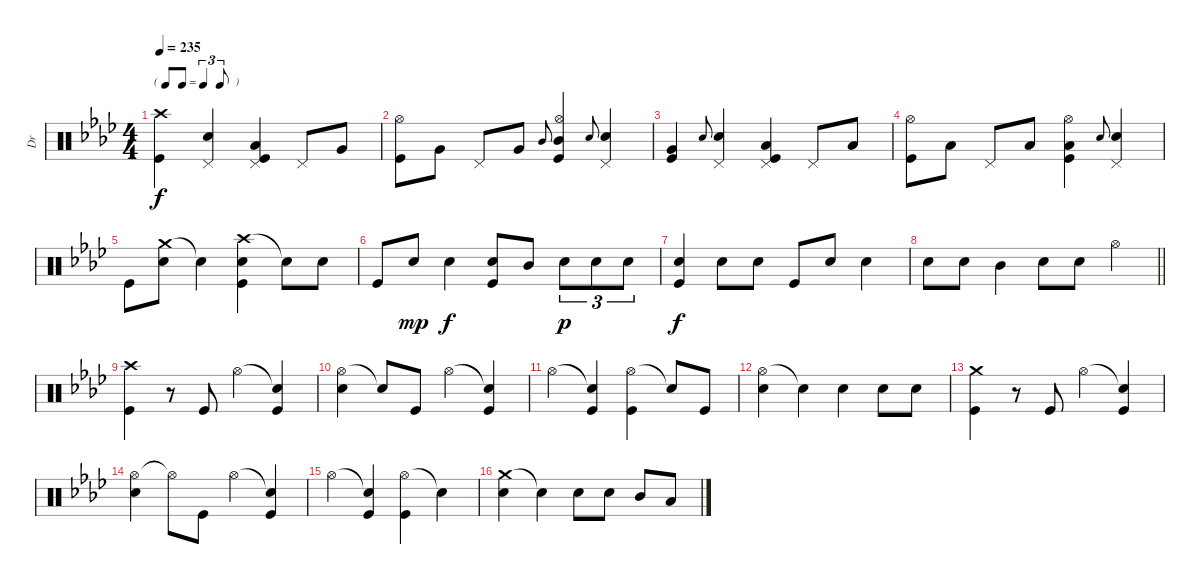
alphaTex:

\track ("Dr" "Dr") {instrument percussion}
\staff {score}
\articulation defaults
\ts (4 4)
\tf triplet8th
\tempo 235
\clef neutral
\ks ab
("Crash high (hit)" "Kick (hit)").4{dy f} ("Electric Snare (hit)" "Pedal Hi-Hat (hit)").4 ("Low Floor Tom (hit)" "Kick (hit)" "Pedal Hi-Hat (hit)").4 "Pedal Hi-Hat (hit)".8 "Very Low Tom (hit)".8 |
("Kick (hit)" "Hi-Hat (open)").8 "Very Low Tom (hit)".8 "Pedal Hi-Hat (hit)".8 "Very Low Tom (hit)".8 "Mid Tom (hit)".8{gr onbeat} ("Mid Tom (hit)" "Kick (hit)" "Hi-Hat (open)").4 "Electric Snare (hit)".8{gr onbeat} ("Electric Snare (hit)" "Pedal Hi-Hat (hit)").4 |
("Very Low Tom (hit)" "Kick (hit)").4 "Electric Snare (hit)".8{gr onbeat} ("Electric Snare (hit)" "Pedal Hi-Hat (hit)").4 ("Low Floor Tom (hit)" "Kick (hit)" "Pedal Hi-Hat (hit)").4 "Pedal Hi-Hat (hit)".8 "Low Floor Tom (hit)".8 |
("Kick (hit)" "Hi-Hat (open)").8 "Low Floor Tom (hit)".8 "Pedal Hi-Hat (hit)".8 "Low Floor Tom (hit)".8 ("Low Floor Tom (hit)" "Kick (hit)" "Hi-Hat (open)").4 "Electric Snare (hit)".8{gr onbeat} ("Electric Snare (hit)" "Pedal Hi-Hat (hit)").4 |
"Kick (hit)".8 ("Crash medium (hit)" "Electric Snare (hit)").8 "Snare (hit)"{t}.4 ("Crash high (hit)" "Electric Snare (hit)" "Kick (hit)").4 "Snare (hit)"{t}.8 "Electric Snare (hit)".8 |
"Kick (hit)".8 "Electric Snare (hit)".8{dy mp} "Electric Snare (hit)".4{dy f} ("Electric Snare (hit)" "Kick (hit)").8 "Mid Tom (hit)".8 "Electric Snare (hit)".8{tu (3 2) dy p} "Electric Snare (hit)".8{tu (3 2)} "Electric Snare (hit)".8{tu (3 2)} |
("Electric Snare (hit)" "Kick (hit)").4{dy f} "Electric Snare (hit)".8 "Electric Snare (hit)".8 "Kick (hit)".8 "Electric Snare (hit)".8 "Electric Snare (hit)".4 |
\barLineRight lightlight "Electric Snare (hit)".8 "Electric Snare (hit)".8 "Mid Tom (hit)".4 "Electric Snare (hit)".8 "Electric Snare (hit)".8 "Hi-Hat (open)".4
|
\section ("" "")
("Crash high (hit)" "Kick (hit)").4 r.8 "Kick (hit)".8 "Hi-Hat (open)".4 ("Snare (hit)"{t} "Kick (hit)").4 |
("Hi-Hat (open)" "Electric Snare (hit)").4 "Snare (hit)"{t}.8 "Kick (hit)".8 "Hi-Hat (open)".4 ("Snare (hit)"{t} "Kick (hit)").4 |
"Hi-Hat (open)".4 ("Snare (hit)"{t} "Kick (hit)").4 ("Hi-Hat (open)" "Kick (hit)").4 "Snare (hit)"{t}.8 "Kick (hit)".8 |
("Hi-Hat (open)" "Electric Snare (hit)").4 "Snare (hit)"{t}.4 "Electric Snare (hit)".4 "Electric Snare (hit)".8 "Electric Snare (hit)".8 |
("Crash medium (hit)" "Kick (hit)").4 r.8 "Kick (hit)".8 "Hi-Hat (open)".4 ("Snare (hit)"{t} "Kick (hit)").4 |
("Hi-Hat (open)" "Electric Snare (hit)").4 "Hi-Hat (open)"{t}.8 "Kick (hit)".8 "Hi-Hat (open)".4 ("Snare (hit)"{t} "Kick (hit)").4 |
"Hi-Hat (open)".4 ("Snare (hit)"{t} "Kick (hit)").4 ("Hi-Hat (open)" "Kick (hit)").4 "Snare (hit)"{t}.4 |
("Crash medium (hit)" "Electric Snare (hit)").4 "Snare (hit)"{t}.4 "Electric Snare (hit)".8 "Electric Snare (hit)".8 "Mid Tom (hit)".8 "Low Floor Tom (hit)".8
